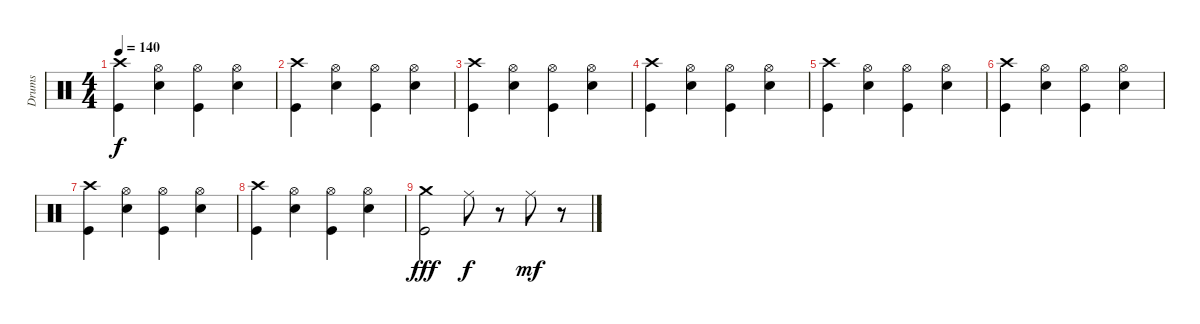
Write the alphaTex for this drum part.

\track ("Drums" "Drums") {instrument percussion}
\staff {score}
\articulation defaults
\ts (4 4)
\tempo 140
\clef neutral
\ks c
("Crash high (hit)" "Kick (hit)").4{dy f} ("Hi-Hat (open)" "Snare (hit) 2").4 ("Hi-Hat (open)" "Kick (hit)").4 ("Hi-Hat (open)" "Snare (hit) 2").4 |
("Crash high (hit)" "Kick (hit)").4 ("Hi-Hat (open)" "Snare (hit) 2").4 ("Hi-Hat (open)" "Kick (hit)").4 ("Hi-Hat (open)" "Snare (hit) 2").4 |
("Crash high (hit)" "Kick (hit)").4 ("Hi-Hat (open)" "Snare (hit) 2").4 ("Hi-Hat (open)" "Kick (hit)").4 ("Hi-Hat (open)" "Snare (hit) 2").4 |
("Crash high (hit)" "Kick (hit)").4 ("Hi-Hat (open)" "Snare (hit) 2").4 ("Hi-Hat (open)" "Kick (hit)").4 ("Hi-Hat (open)" "Snare (hit) 2").4 |
("Crash high (hit)" "Kick (hit)").4 ("Hi-Hat (open)" "Snare (hit) 2").4 ("Hi-Hat (open)" "Kick (hit)").4 ("Hi-Hat (open)" "Snare (hit) 2").4 |
("Crash high (hit)" "Kick (hit)").4 ("Hi-Hat (open)" "Snare (hit) 2").4 ("Hi-Hat (open)" "Kick (hit)").4 ("Hi-Hat (open)" "Snare (hit) 2").4 |
("Crash high (hit)" "Kick (hit)").4 ("Hi-Hat (open)" "Snare (hit) 2").4 ("Hi-Hat (open)" "Kick (hit)").4 ("Hi-Hat (open)" "Snare (hit) 2").4 |
("Crash high (hit)" "Kick (hit)").4 ("Hi-Hat (open)" "Snare (hit) 2").4 ("Hi-Hat (open)" "Kick (hit)").4 ("Hi-Hat (open)" "Snare (hit) 2").4 |
("Crash medium (hit)" "Kick (hit)").2{dy fff} "Ride (middle)".8{dy f} r.8 "Ride (middle)".8{dy mf} r.8
